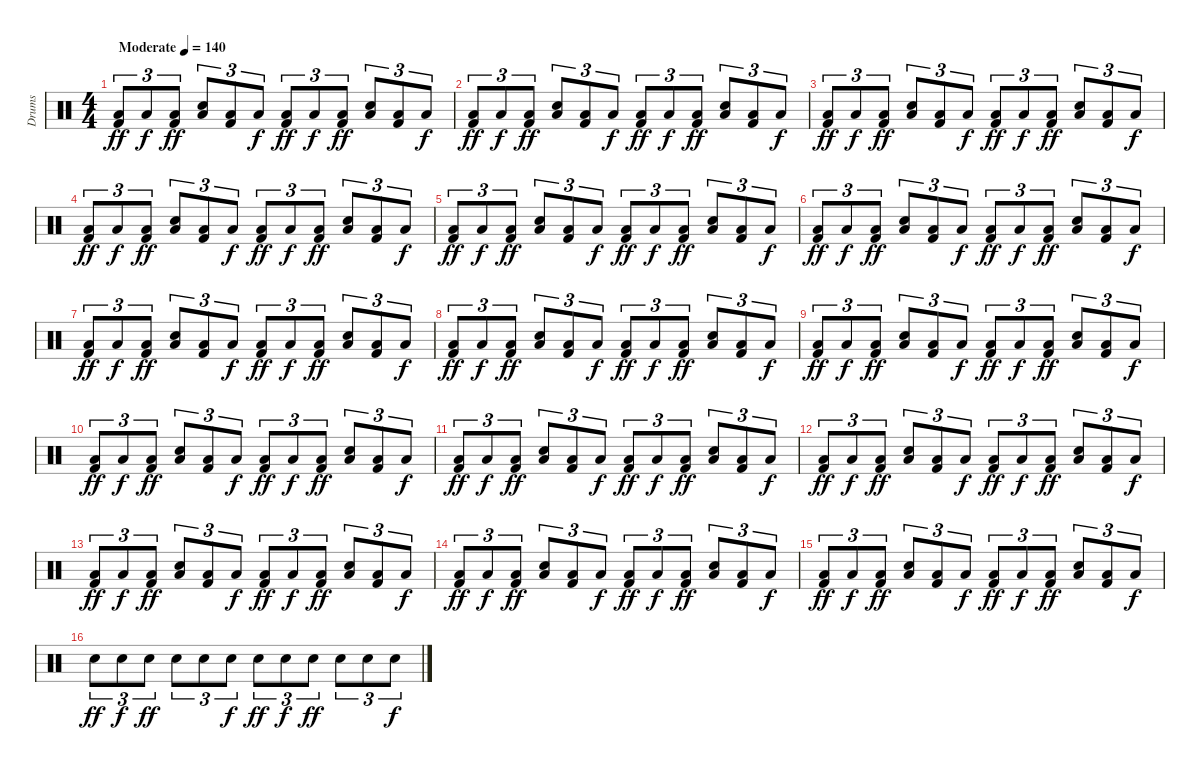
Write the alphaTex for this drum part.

\track ("Drums" "Drums") {instrument percussion}
\staff {score}
\articulation defaults
\ts (4 4)
\tempo (140 "Moderate")
\clef neutral
\ks c
("Kick (hit) 2" "Low Floor Tom (hit)").8{tu (3 2) dy ff} "Low Floor Tom (hit)".8{tu (3 2) dy f} ("Kick (hit) 2" "Low Floor Tom (hit)").8{tu (3 2) dy ff} ("Snare (hit) 2" "Low Floor Tom (hit)").8{tu (3 2)} ("Kick (hit) 2" "Low Floor Tom (hit)").8{tu (3 2)} "Low Floor Tom (hit)".8{tu (3 2) dy f} ("Kick (hit) 2" "Low Floor Tom (hit)").8{tu (3 2) dy ff} "Low Floor Tom (hit)".8{tu (3 2) dy f} ("Kick (hit) 2" "Low Floor Tom (hit)").8{tu (3 2) dy ff} ("Snare (hit) 2" "Low Floor Tom (hit)").8{tu (3 2)} ("Kick (hit) 2" "Low Floor Tom (hit)").8{tu (3 2)} "Low Floor Tom (hit)".8{tu (3 2) dy f} |
("Kick (hit) 2" "Low Floor Tom (hit)").8{tu (3 2) dy ff} "Low Floor Tom (hit)".8{tu (3 2) dy f} ("Kick (hit) 2" "Low Floor Tom (hit)").8{tu (3 2) dy ff} ("Snare (hit) 2" "Low Floor Tom (hit)").8{tu (3 2)} ("Kick (hit) 2" "Low Floor Tom (hit)").8{tu (3 2)} "Low Floor Tom (hit)".8{tu (3 2) dy f} ("Kick (hit) 2" "Low Floor Tom (hit)").8{tu (3 2) dy ff} "Low Floor Tom (hit)".8{tu (3 2) dy f} ("Kick (hit) 2" "Low Floor Tom (hit)").8{tu (3 2) dy ff} ("Snare (hit) 2" "Low Floor Tom (hit)").8{tu (3 2)} ("Kick (hit) 2" "Low Floor Tom (hit)").8{tu (3 2)} "Low Floor Tom (hit)".8{tu (3 2) dy f} |
("Kick (hit) 2" "Low Floor Tom (hit)").8{tu (3 2) dy ff} "Low Floor Tom (hit)".8{tu (3 2) dy f} ("Kick (hit) 2" "Low Floor Tom (hit)").8{tu (3 2) dy ff} ("Snare (hit) 2" "Low Floor Tom (hit)").8{tu (3 2)} ("Kick (hit) 2" "Low Floor Tom (hit)").8{tu (3 2)} "Low Floor Tom (hit)".8{tu (3 2) dy f} ("Kick (hit) 2" "Low Floor Tom (hit)").8{tu (3 2) dy ff} "Low Floor Tom (hit)".8{tu (3 2) dy f} ("Kick (hit) 2" "Low Floor Tom (hit)").8{tu (3 2) dy ff} ("Snare (hit) 2" "Low Floor Tom (hit)").8{tu (3 2)} ("Kick (hit) 2" "Low Floor Tom (hit)").8{tu (3 2)} "Low Floor Tom (hit)".8{tu (3 2) dy f} |
("Kick (hit) 2" "Low Floor Tom (hit)").8{tu (3 2) dy ff} "Low Floor Tom (hit)".8{tu (3 2) dy f} ("Kick (hit) 2" "Low Floor Tom (hit)").8{tu (3 2) dy ff} ("Snare (hit) 2" "Low Floor Tom (hit)").8{tu (3 2)} ("Kick (hit) 2" "Low Floor Tom (hit)").8{tu (3 2)} "Low Floor Tom (hit)".8{tu (3 2) dy f} ("Kick (hit) 2" "Low Floor Tom (hit)").8{tu (3 2) dy ff} "Low Floor Tom (hit)".8{tu (3 2) dy f} ("Kick (hit) 2" "Low Floor Tom (hit)").8{tu (3 2) dy ff} ("Snare (hit) 2" "Low Floor Tom (hit)").8{tu (3 2)} ("Kick (hit) 2" "Low Floor Tom (hit)").8{tu (3 2)} "Low Floor Tom (hit)".8{tu (3 2) dy f} |
("Kick (hit) 2" "Low Floor Tom (hit)").8{tu (3 2) dy ff} "Low Floor Tom (hit)".8{tu (3 2) dy f} ("Kick (hit) 2" "Low Floor Tom (hit)").8{tu (3 2) dy ff} ("Snare (hit) 2" "Low Floor Tom (hit)").8{tu (3 2)} ("Kick (hit) 2" "Low Floor Tom (hit)").8{tu (3 2)} "Low Floor Tom (hit)".8{tu (3 2) dy f} ("Kick (hit) 2" "Low Floor Tom (hit)").8{tu (3 2) dy ff} "Low Floor Tom (hit)".8{tu (3 2) dy f} ("Kick (hit) 2" "Low Floor Tom (hit)").8{tu (3 2) dy ff} ("Snare (hit) 2" "Low Floor Tom (hit)").8{tu (3 2)} ("Kick (hit) 2" "Low Floor Tom (hit)").8{tu (3 2)} "Low Floor Tom (hit)".8{tu (3 2) dy f} |
("Kick (hit) 2" "Low Floor Tom (hit)").8{tu (3 2) dy ff} "Low Floor Tom (hit)".8{tu (3 2) dy f} ("Kick (hit) 2" "Low Floor Tom (hit)").8{tu (3 2) dy ff} ("Snare (hit) 2" "Low Floor Tom (hit)").8{tu (3 2)} ("Kick (hit) 2" "Low Floor Tom (hit)").8{tu (3 2)} "Low Floor Tom (hit)".8{tu (3 2) dy f} ("Kick (hit) 2" "Low Floor Tom (hit)").8{tu (3 2) dy ff} "Low Floor Tom (hit)".8{tu (3 2) dy f} ("Kick (hit) 2" "Low Floor Tom (hit)").8{tu (3 2) dy ff} ("Snare (hit) 2" "Low Floor Tom (hit)").8{tu (3 2)} ("Kick (hit) 2" "Low Floor Tom (hit)").8{tu (3 2)} "Low Floor Tom (hit)".8{tu (3 2) dy f} |
("Kick (hit) 2" "Low Floor Tom (hit)").8{tu (3 2) dy ff} "Low Floor Tom (hit)".8{tu (3 2) dy f} ("Kick (hit) 2" "Low Floor Tom (hit)").8{tu (3 2) dy ff} ("Snare (hit) 2" "Low Floor Tom (hit)").8{tu (3 2)} ("Kick (hit) 2" "Low Floor Tom (hit)").8{tu (3 2)} "Low Floor Tom (hit)".8{tu (3 2) dy f} ("Kick (hit) 2" "Low Floor Tom (hit)").8{tu (3 2) dy ff} "Low Floor Tom (hit)".8{tu (3 2) dy f} ("Kick (hit) 2" "Low Floor Tom (hit)").8{tu (3 2) dy ff} ("Snare (hit) 2" "Low Floor Tom (hit)").8{tu (3 2)} ("Kick (hit) 2" "Low Floor Tom (hit)").8{tu (3 2)} "Low Floor Tom (hit)".8{tu (3 2) dy f} |
("Kick (hit) 2" "Low Floor Tom (hit)").8{tu (3 2) dy ff} "Low Floor Tom (hit)".8{tu (3 2) dy f} ("Kick (hit) 2" "Low Floor Tom (hit)").8{tu (3 2) dy ff} ("Snare (hit) 2" "Low Floor Tom (hit)").8{tu (3 2)} ("Kick (hit) 2" "Low Floor Tom (hit)").8{tu (3 2)} "Low Floor Tom (hit)".8{tu (3 2) dy f} ("Kick (hit) 2" "Low Floor Tom (hit)").8{tu (3 2) dy ff} "Low Floor Tom (hit)".8{tu (3 2) dy f} ("Kick (hit) 2" "Low Floor Tom (hit)").8{tu (3 2) dy ff} ("Snare (hit) 2" "Low Floor Tom (hit)").8{tu (3 2)} ("Kick (hit) 2" "Low Floor Tom (hit)").8{tu (3 2)} "Low Floor Tom (hit)".8{tu (3 2) dy f} |
("Kick (hit) 2" "Low Floor Tom (hit)").8{tu (3 2) dy ff} "Low Floor Tom (hit)".8{tu (3 2) dy f} ("Kick (hit) 2" "Low Floor Tom (hit)").8{tu (3 2) dy ff} ("Snare (hit) 2" "Low Floor Tom (hit)").8{tu (3 2)} ("Kick (hit) 2" "Low Floor Tom (hit)").8{tu (3 2)} "Low Floor Tom (hit)".8{tu (3 2) dy f} ("Kick (hit) 2" "Low Floor Tom (hit)").8{tu (3 2) dy ff} "Low Floor Tom (hit)".8{tu (3 2) dy f} ("Kick (hit) 2" "Low Floor Tom (hit)").8{tu (3 2) dy ff} ("Snare (hit) 2" "Low Floor Tom (hit)").8{tu (3 2)} ("Kick (hit) 2" "Low Floor Tom (hit)").8{tu (3 2)} "Low Floor Tom (hit)".8{tu (3 2) dy f} |
("Kick (hit) 2" "Low Floor Tom (hit)").8{tu (3 2) dy ff} "Low Floor Tom (hit)".8{tu (3 2) dy f} ("Kick (hit) 2" "Low Floor Tom (hit)").8{tu (3 2) dy ff} ("Snare (hit) 2" "Low Floor Tom (hit)").8{tu (3 2)} ("Kick (hit) 2" "Low Floor Tom (hit)").8{tu (3 2)} "Low Floor Tom (hit)".8{tu (3 2) dy f} ("Kick (hit) 2" "Low Floor Tom (hit)").8{tu (3 2) dy ff} "Low Floor Tom (hit)".8{tu (3 2) dy f} ("Kick (hit) 2" "Low Floor Tom (hit)").8{tu (3 2) dy ff} ("Snare (hit) 2" "Low Floor Tom (hit)").8{tu (3 2)} ("Kick (hit) 2" "Low Floor Tom (hit)").8{tu (3 2)} "Low Floor Tom (hit)".8{tu (3 2) dy f} |
("Kick (hit) 2" "Low Floor Tom (hit)").8{tu (3 2) dy ff} "Low Floor Tom (hit)".8{tu (3 2) dy f} ("Kick (hit) 2" "Low Floor Tom (hit)").8{tu (3 2) dy ff} ("Snare (hit) 2" "Low Floor Tom (hit)").8{tu (3 2)} ("Kick (hit) 2" "Low Floor Tom (hit)").8{tu (3 2)} "Low Floor Tom (hit)".8{tu (3 2) dy f} ("Kick (hit) 2" "Low Floor Tom (hit)").8{tu (3 2) dy ff} "Low Floor Tom (hit)".8{tu (3 2) dy f} ("Kick (hit) 2" "Low Floor Tom (hit)").8{tu (3 2) dy ff} ("Snare (hit) 2" "Low Floor Tom (hit)").8{tu (3 2)} ("Kick (hit) 2" "Low Floor Tom (hit)").8{tu (3 2)} "Low Floor Tom (hit)".8{tu (3 2) dy f} |
("Kick (hit) 2" "Low Floor Tom (hit)").8{tu (3 2) dy ff} "Low Floor Tom (hit)".8{tu (3 2) dy f} ("Kick (hit) 2" "Low Floor Tom (hit)").8{tu (3 2) dy ff} ("Snare (hit) 2" "Low Floor Tom (hit)").8{tu (3 2)} ("Kick (hit) 2" "Low Floor Tom (hit)").8{tu (3 2)} "Low Floor Tom (hit)".8{tu (3 2) dy f} ("Kick (hit) 2" "Low Floor Tom (hit)").8{tu (3 2) dy ff} "Low Floor Tom (hit)".8{tu (3 2) dy f} ("Kick (hit) 2" "Low Floor Tom (hit)").8{tu (3 2) dy ff} ("Snare (hit) 2" "Low Floor Tom (hit)").8{tu (3 2)} ("Kick (hit) 2" "Low Floor Tom (hit)").8{tu (3 2)} "Low Floor Tom (hit)".8{tu (3 2) dy f} |
("Kick (hit) 2" "Low Floor Tom (hit)").8{tu (3 2) dy ff} "Low Floor Tom (hit)".8{tu (3 2) dy f} ("Kick (hit) 2" "Low Floor Tom (hit)").8{tu (3 2) dy ff} ("Snare (hit) 2" "Low Floor Tom (hit)").8{tu (3 2)} ("Kick (hit) 2" "Low Floor Tom (hit)").8{tu (3 2)} "Low Floor Tom (hit)".8{tu (3 2) dy f} ("Kick (hit) 2" "Low Floor Tom (hit)").8{tu (3 2) dy ff} "Low Floor Tom (hit)".8{tu (3 2) dy f} ("Kick (hit) 2" "Low Floor Tom (hit)").8{tu (3 2) dy ff} ("Snare (hit) 2" "Low Floor Tom (hit)").8{tu (3 2)} ("Kick (hit) 2" "Low Floor Tom (hit)").8{tu (3 2)} "Low Floor Tom (hit)".8{tu (3 2) dy f} |
("Kick (hit) 2" "Low Floor Tom (hit)").8{tu (3 2) dy ff} "Low Floor Tom (hit)".8{tu (3 2) dy f} ("Kick (hit) 2" "Low Floor Tom (hit)").8{tu (3 2) dy ff} ("Snare (hit) 2" "Low Floor Tom (hit)").8{tu (3 2)} ("Kick (hit) 2" "Low Floor Tom (hit)").8{tu (3 2)} "Low Floor Tom (hit)".8{tu (3 2) dy f} ("Kick (hit) 2" "Low Floor Tom (hit)").8{tu (3 2) dy ff} "Low Floor Tom (hit)".8{tu (3 2) dy f} ("Kick (hit) 2" "Low Floor Tom (hit)").8{tu (3 2) dy ff} ("Snare (hit) 2" "Low Floor Tom (hit)").8{tu (3 2)} ("Kick (hit) 2" "Low Floor Tom (hit)").8{tu (3 2)} "Low Floor Tom (hit)".8{tu (3 2) dy f} |
("Kick (hit) 2" "Low Floor Tom (hit)").8{tu (3 2) dy ff} "Low Floor Tom (hit)".8{tu (3 2) dy f} ("Kick (hit) 2" "Low Floor Tom (hit)").8{tu (3 2) dy ff} ("Snare (hit) 2" "Low Floor Tom (hit)").8{tu (3 2)} ("Kick (hit) 2" "Low Floor Tom (hit)").8{tu (3 2)} "Low Floor Tom (hit)".8{tu (3 2) dy f} ("Kick (hit) 2" "Low Floor Tom (hit)").8{tu (3 2) dy ff} "Low Floor Tom (hit)".8{tu (3 2) dy f} ("Kick (hit) 2" "Low Floor Tom (hit)").8{tu (3 2) dy ff} ("Snare (hit) 2" "Low Floor Tom (hit)").8{tu (3 2)} ("Kick (hit) 2" "Low Floor Tom (hit)").8{tu (3 2)} "Low Floor Tom (hit)".8{tu (3 2) dy f} |
"Snare (hit) 2".8{tu (3 2) dy ff} "Snare (hit) 2".8{tu (3 2) dy f} "Snare (hit) 2".8{tu (3 2) dy ff} "Snare (hit) 2".8{tu (3 2)} "Snare (hit) 2".8{tu (3 2)} "Snare (hit) 2".8{tu (3 2) dy f} "Snare (hit) 2".8{tu (3 2) dy ff} "Snare (hit) 2".8{tu (3 2) dy f} "Snare (hit) 2".8{tu (3 2) dy ff} "Snare (hit) 2".8{tu (3 2)} "Snare (hit) 2".8{tu (3 2)} "Snare (hit) 2".8{tu (3 2) dy f}
